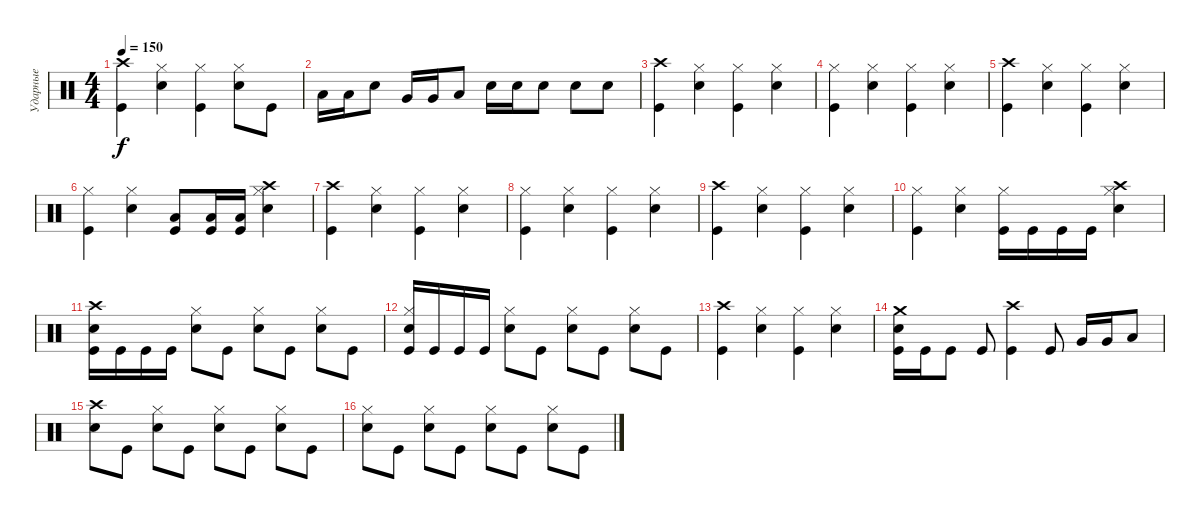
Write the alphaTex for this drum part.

\track ("Ударные" "Ударные") {instrument percussion}
\staff {score}
\articulation defaults
\ts (4 4)
\tempo 150
\clef neutral
\ks c
("Crash high (hit)" "Kick (hit)").4{dy f} ("Hi-Hat (closed)" "Electric Snare (hit)").4 ("Hi-Hat (closed)" "Kick (hit)").4 ("Hi-Hat (closed)" "Electric Snare (hit)").8 "Kick (hit)".8 |
"Low Tom (hit)".16 "Low Tom (hit)".16 "Electric Snare (hit)".8 "Very Low Tom (hit)".16 "Very Low Tom (hit)".16 "Low Tom (hit)".8 "Electric Snare (hit)".16 "Electric Snare (hit)".16 "Electric Snare (hit)".8 "Electric Snare (hit)".8 "Electric Snare (hit)".8 |
("Crash high (hit)" "Kick (hit)").4 ("Hi-Hat (closed)" "Electric Snare (hit)").4 ("Hi-Hat (closed)" "Kick (hit)").4 ("Hi-Hat (closed)" "Electric Snare (hit)").4 |
("Hi-Hat (closed)" "Kick (hit)").4 ("Hi-Hat (closed)" "Electric Snare (hit)").4 ("Hi-Hat (closed)" "Kick (hit)").4 ("Hi-Hat (closed)" "Electric Snare (hit)").4 |
("Crash high (hit)" "Kick (hit)").4 ("Hi-Hat (closed)" "Electric Snare (hit)").4 ("Hi-Hat (closed)" "Kick (hit)").4 ("Hi-Hat (closed)" "Electric Snare (hit)").4 |
("Hi-Hat (closed)" "Kick (hit)").4 ("Hi-Hat (closed)" "Electric Snare (hit)").4 ("Low Tom (hit)" "Kick (hit)").8 ("Low Tom (hit)" "Kick (hit)").16 ("Low Tom (hit)" "Kick (hit)").16 ("Crash high (hit)" "Hi-Hat (closed)" "Electric Snare (hit)").4 |
("Crash high (hit)" "Kick (hit)").4 ("Hi-Hat (closed)" "Electric Snare (hit)").4 ("Hi-Hat (closed)" "Kick (hit)").4 ("Hi-Hat (closed)" "Electric Snare (hit)").4 |
("Hi-Hat (closed)" "Kick (hit)").4 ("Hi-Hat (closed)" "Electric Snare (hit)").4 ("Hi-Hat (closed)" "Kick (hit)").4 ("Hi-Hat (closed)" "Electric Snare (hit)").4 |
("Crash high (hit)" "Kick (hit)").4 ("Hi-Hat (closed)" "Electric Snare (hit)").4 ("Hi-Hat (closed)" "Kick (hit)").4 ("Hi-Hat (closed)" "Electric Snare (hit)").4 |
("Hi-Hat (closed)" "Kick (hit)").4 ("Hi-Hat (closed)" "Electric Snare (hit)").4 ("Hi-Hat (closed)" "Kick (hit)").16 "Kick (hit)".16 "Kick (hit)".16 "Kick (hit)".16 ("Crash high (hit)" "Hi-Hat (closed)" "Electric Snare (hit)").4 |
("Crash high (hit)" "Electric Snare (hit)" "Kick (hit)").16 "Kick (hit)".16 "Kick (hit)".16 "Kick (hit)".16 ("Hi-Hat (closed)" "Electric Snare (hit)").8 "Kick (hit)".8 ("Hi-Hat (closed)" "Electric Snare (hit)").8 "Kick (hit)".8 ("Hi-Hat (closed)" "Electric Snare (hit)").8 "Kick (hit)".8 |
("Hi-Hat (closed)" "Electric Snare (hit)" "Kick (hit)").16 "Kick (hit)".16 "Kick (hit)".16 "Kick (hit)".16 ("Hi-Hat (closed)" "Electric Snare (hit)").8 "Kick (hit)".8 ("Hi-Hat (closed)" "Electric Snare (hit)").8 "Kick (hit)".8 ("Hi-Hat (closed)" "Electric Snare (hit)").8 "Kick (hit)".8 |
("Crash high (hit)" "Kick (hit)").4 ("Hi-Hat (closed)" "Electric Snare (hit)").4 ("Hi-Hat (closed)" "Kick (hit)").4 ("Hi-Hat (closed)" "Electric Snare (hit)").4 |
("Crash medium (hit)" "Electric Snare (hit)" "Kick (hit)").16 "Kick (hit)".16 "Kick (hit)".8 "Kick (hit)".8 ("Crash high (hit)" "Kick (hit)").4 "Kick (hit)".8 "Very Low Tom (hit)".16 "Very Low Tom (hit)".16 "Low Tom (hit)".8 |
("Crash high (hit)" "Electric Snare (hit)").8 "Kick (hit)".8 ("Hi-Hat (closed)" "Electric Snare (hit)").8 "Kick (hit)".8 ("Hi-Hat (closed)" "Electric Snare (hit)").8 "Kick (hit)".8 ("Hi-Hat (closed)" "Electric Snare (hit)").8 "Kick (hit)".8 |
("Hi-Hat (closed)" "Electric Snare (hit)").8 "Kick (hit)".8 ("Hi-Hat (closed)" "Electric Snare (hit)").8 "Kick (hit)".8 ("Hi-Hat (closed)" "Electric Snare (hit)").8 "Kick (hit)".8 ("Hi-Hat (closed)" "Electric Snare (hit)").8 "Kick (hit)".8
